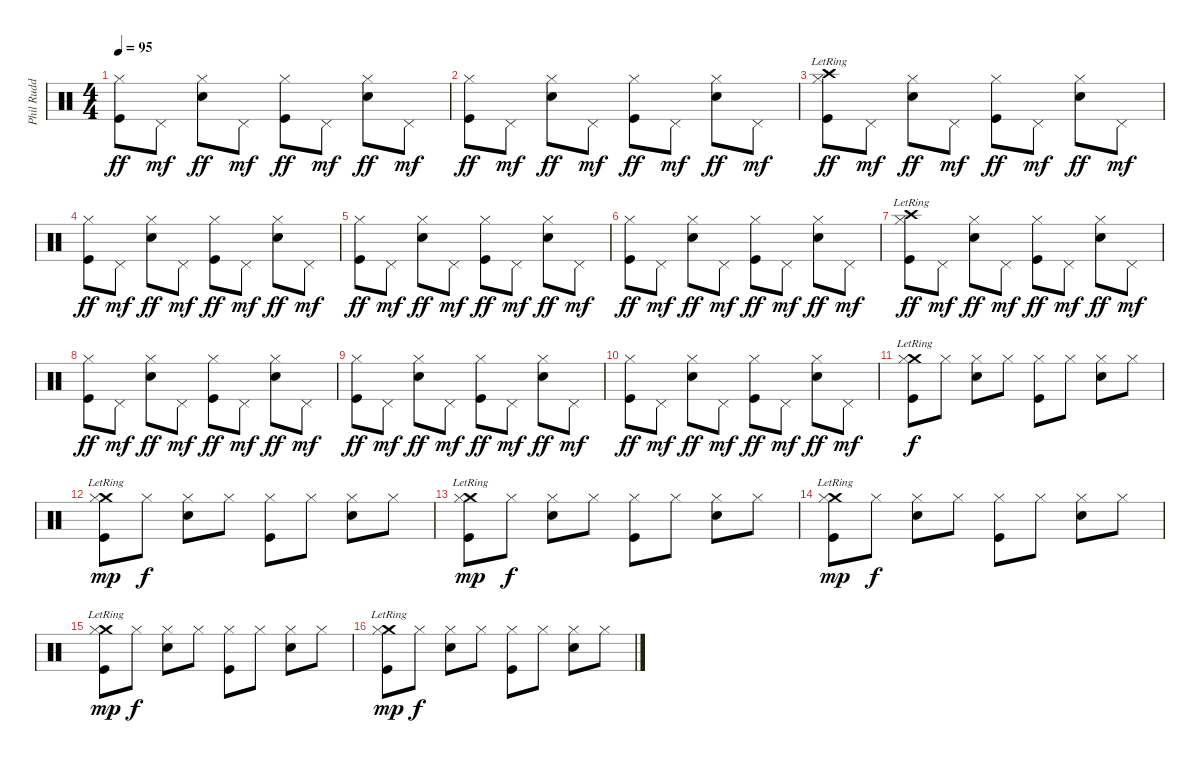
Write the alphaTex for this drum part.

\track ("Phil Rudd" "Phil Rudd") {instrument percussion}
\staff {score}
\articulation defaults
\ts (4 4)
\tempo 95
\clef neutral
\ks c
("Hi-Hat (closed)" "Kick (hit)").8{dy ff} "Pedal Hi-Hat (hit)".8{dy mf} ("Hi-Hat (closed)" "Snare (hit) 2").8{dy ff} "Pedal Hi-Hat (hit)".8{dy mf} ("Hi-Hat (closed)" "Kick (hit)").8{dy ff} "Pedal Hi-Hat (hit)".8{dy mf} ("Hi-Hat (closed)" "Snare (hit) 2").8{dy ff} "Pedal Hi-Hat (hit)".8{dy mf} |
("Hi-Hat (closed)" "Kick (hit)").8{dy ff} "Pedal Hi-Hat (hit)".8{dy mf} ("Hi-Hat (closed)" "Snare (hit) 2").8{dy ff} "Pedal Hi-Hat (hit)".8{dy mf} ("Hi-Hat (closed)" "Kick (hit)").8{dy ff} "Pedal Hi-Hat (hit)".8{dy mf} ("Hi-Hat (closed)" "Snare (hit) 2").8{dy ff} "Pedal Hi-Hat (hit)".8{dy mf} |
("Crash high (hit)"{lr} "Hi-Hat (closed)" "Kick (hit)").8{dy ff} "Pedal Hi-Hat (hit)".8{dy mf} ("Hi-Hat (closed)" "Snare (hit) 2").8{dy ff} "Pedal Hi-Hat (hit)".8{dy mf} ("Hi-Hat (closed)" "Kick (hit)").8{dy ff} "Pedal Hi-Hat (hit)".8{dy mf} ("Hi-Hat (closed)" "Snare (hit) 2").8{dy ff} "Pedal Hi-Hat (hit)".8{dy mf} |
("Hi-Hat (closed)" "Kick (hit)").8{dy ff} "Pedal Hi-Hat (hit)".8{dy mf} ("Hi-Hat (closed)" "Snare (hit) 2").8{dy ff} "Pedal Hi-Hat (hit)".8{dy mf} ("Hi-Hat (closed)" "Kick (hit)").8{dy ff} "Pedal Hi-Hat (hit)".8{dy mf} ("Hi-Hat (closed)" "Snare (hit) 2").8{dy ff} "Pedal Hi-Hat (hit)".8{dy mf} |
("Hi-Hat (closed)" "Kick (hit)").8{dy ff} "Pedal Hi-Hat (hit)".8{dy mf} ("Hi-Hat (closed)" "Snare (hit) 2").8{dy ff} "Pedal Hi-Hat (hit)".8{dy mf} ("Hi-Hat (closed)" "Kick (hit)").8{dy ff} "Pedal Hi-Hat (hit)".8{dy mf} ("Hi-Hat (closed)" "Snare (hit) 2").8{dy ff} "Pedal Hi-Hat (hit)".8{dy mf} |
("Hi-Hat (closed)" "Kick (hit)").8{dy ff} "Pedal Hi-Hat (hit)".8{dy mf} ("Hi-Hat (closed)" "Snare (hit) 2").8{dy ff} "Pedal Hi-Hat (hit)".8{dy mf} ("Hi-Hat (closed)" "Kick (hit)").8{dy ff} "Pedal Hi-Hat (hit)".8{dy mf} ("Hi-Hat (closed)" "Snare (hit) 2").8{dy ff} "Pedal Hi-Hat (hit)".8{dy mf} |
("Crash high (hit)"{lr} "Hi-Hat (closed)" "Kick (hit)").8{dy ff} "Pedal Hi-Hat (hit)".8{dy mf} ("Hi-Hat (closed)" "Snare (hit) 2").8{dy ff} "Pedal Hi-Hat (hit)".8{dy mf} ("Hi-Hat (closed)" "Kick (hit)").8{dy ff} "Pedal Hi-Hat (hit)".8{dy mf} ("Hi-Hat (closed)" "Snare (hit) 2").8{dy ff} "Pedal Hi-Hat (hit)".8{dy mf} |
("Hi-Hat (closed)" "Kick (hit)").8{dy ff} "Pedal Hi-Hat (hit)".8{dy mf} ("Hi-Hat (closed)" "Snare (hit) 2").8{dy ff} "Pedal Hi-Hat (hit)".8{dy mf} ("Hi-Hat (closed)" "Kick (hit)").8{dy ff} "Pedal Hi-Hat (hit)".8{dy mf} ("Hi-Hat (closed)" "Snare (hit) 2").8{dy ff} "Pedal Hi-Hat (hit)".8{dy mf} |
("Hi-Hat (closed)" "Kick (hit)").8{dy ff} "Pedal Hi-Hat (hit)".8{dy mf} ("Hi-Hat (closed)" "Snare (hit) 2").8{dy ff} "Pedal Hi-Hat (hit)".8{dy mf} ("Hi-Hat (closed)" "Kick (hit)").8{dy ff} "Pedal Hi-Hat (hit)".8{dy mf} ("Hi-Hat (closed)" "Snare (hit) 2").8{dy ff} "Pedal Hi-Hat (hit)".8{dy mf} |
("Hi-Hat (closed)" "Kick (hit)").8{dy ff} "Pedal Hi-Hat (hit)".8{dy mf} ("Hi-Hat (closed)" "Snare (hit) 2").8{dy ff} "Pedal Hi-Hat (hit)".8{dy mf} ("Hi-Hat (closed)" "Kick (hit)").8{dy ff} "Pedal Hi-Hat (hit)".8{dy mf} ("Hi-Hat (closed)" "Snare (hit) 2").8{dy ff} "Pedal Hi-Hat (hit)".8{dy mf} |
("Crash medium (hit)"{lr} "Hi-Hat (closed)" "Kick (hit)").8{dy f} "Hi-Hat (closed)".8 ("Hi-Hat (closed)" "Snare (hit) 2").8 "Hi-Hat (closed)".8 ("Hi-Hat (closed)" "Kick (hit)").8 "Hi-Hat (closed)".8 ("Hi-Hat (closed)" "Snare (hit) 2").8 "Hi-Hat (closed)".8 |
("Crash medium (hit)"{lr} "Hi-Hat (closed)" "Kick (hit)").8{dy mp} "Hi-Hat (closed)".8{dy f} ("Hi-Hat (closed)" "Snare (hit) 2").8 "Hi-Hat (closed)".8 ("Hi-Hat (closed)" "Kick (hit)").8 "Hi-Hat (closed)".8 ("Hi-Hat (closed)" "Snare (hit) 2").8 "Hi-Hat (closed)".8 |
("Crash medium (hit)"{lr} "Hi-Hat (closed)" "Kick (hit)").8{dy mp} "Hi-Hat (closed)".8{dy f} ("Hi-Hat (closed)" "Snare (hit) 2").8 "Hi-Hat (closed)".8 ("Hi-Hat (closed)" "Kick (hit)").8 "Hi-Hat (closed)".8 ("Hi-Hat (closed)" "Snare (hit) 2").8 "Hi-Hat (closed)".8 |
("Crash medium (hit)"{lr} "Hi-Hat (closed)" "Kick (hit)").8{dy mp} "Hi-Hat (closed)".8{dy f} ("Hi-Hat (closed)" "Snare (hit) 2").8 "Hi-Hat (closed)".8 ("Hi-Hat (closed)" "Kick (hit)").8 "Hi-Hat (closed)".8 ("Hi-Hat (closed)" "Snare (hit) 2").8 "Hi-Hat (closed)".8 |
("Crash medium (hit)"{lr} "Hi-Hat (closed)" "Kick (hit)").8{dy mp} "Hi-Hat (closed)".8{dy f} ("Hi-Hat (closed)" "Snare (hit) 2").8 "Hi-Hat (closed)".8 ("Hi-Hat (closed)" "Kick (hit)").8 "Hi-Hat (closed)".8 ("Hi-Hat (closed)" "Snare (hit) 2").8 "Hi-Hat (closed)".8 |
("Crash medium (hit)"{lr} "Hi-Hat (closed)" "Kick (hit)").8{dy mp} "Hi-Hat (closed)".8{dy f} ("Hi-Hat (closed)" "Snare (hit) 2").8 "Hi-Hat (closed)".8 ("Hi-Hat (closed)" "Kick (hit)").8 "Hi-Hat (closed)".8 ("Hi-Hat (closed)" "Snare (hit) 2").8 "Hi-Hat (closed)".8
